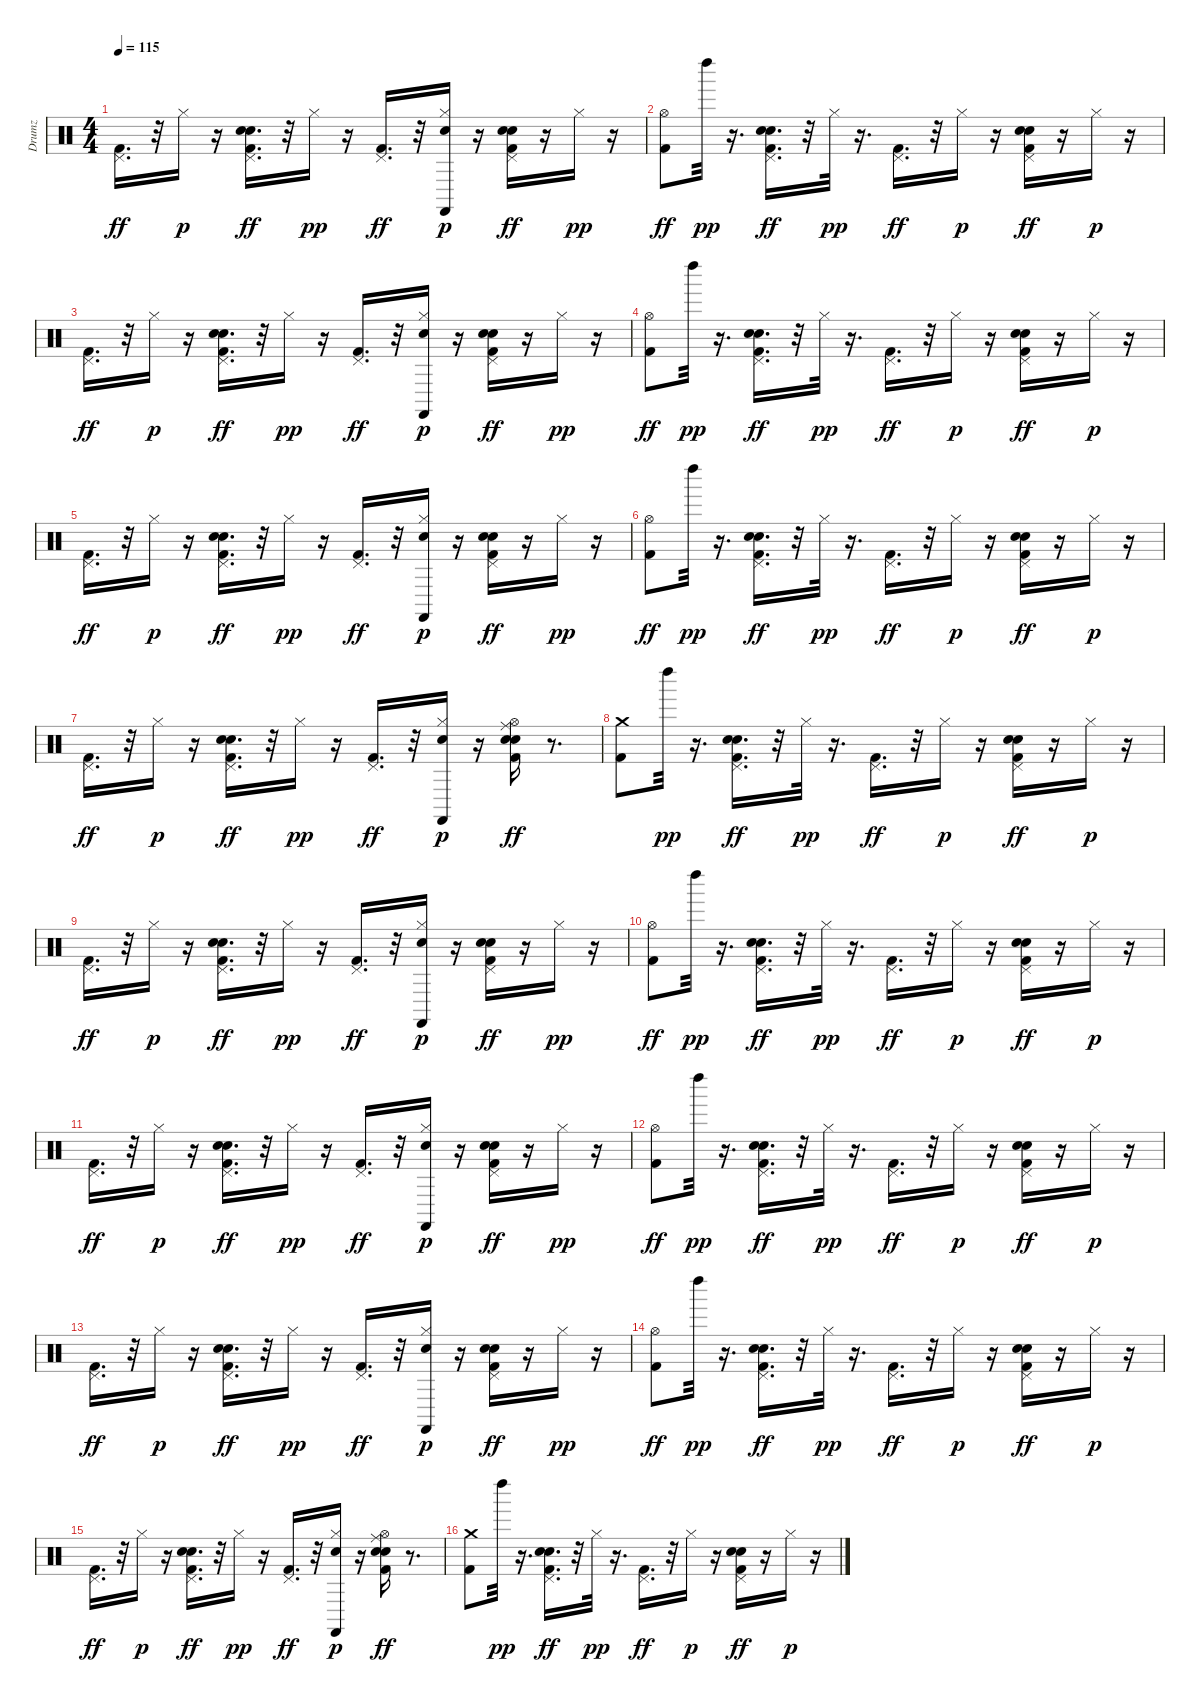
\track ("Drumz" "Drumz") {instrument percussion}
\staff {score}
\articulation defaults
\ts (4 4)
\tempo 115
\clef neutral
\ks c
("Kick (hit) 2" "Pedal Hi-Hat (hit)").16{d dy ff} r.32 "Hi-Hat (closed)".16{dy p} r.16 ("Kick (hit) 2" "Pedal Hi-Hat (hit)" "Hand Clap (hit)" "Electric Snare (hit)").16{d dy ff} r.32 "Hi-Hat (closed)".16{dy pp} r.16 ("Pedal Hi-Hat (hit)" "Kick (hit) 2").16{d dy ff} r.32 ("Hi-Hat (closed)" "Castanets (hit)" "Hand Clap (hit)").16{dy p} r.16 ("Pedal Hi-Hat (hit)" "Kick (hit) 2" "Hand Clap (hit)" "Electric Snare (hit)").16{dy ff} r.16 "Hi-Hat (closed)".16{dy pp} r.16 |
("Hi-Hat (open)" "Kick (hit) 2").8{dy ff} "Left Maraca (hit)".32{dy pp} r.16{d} ("Pedal Hi-Hat (hit)" "Kick (hit) 2" "Hand Clap (hit)" "Electric Snare (hit)").16{d dy ff} r.32 "Hi-Hat (closed)".32{dy pp} r.16{d} ("Pedal Hi-Hat (hit)" "Kick (hit) 2").16{d dy ff} r.32 "Hi-Hat (closed)".16{dy p} r.16 ("Pedal Hi-Hat (hit)" "Kick (hit) 2" "Electric Snare (hit)" "Hand Clap (hit)").16{dy ff} r.16 "Hi-Hat (closed)".16{dy p} r.16 |
("Kick (hit) 2" "Pedal Hi-Hat (hit)").16{d dy ff} r.32 "Hi-Hat (closed)".16{dy p} r.16 ("Kick (hit) 2" "Pedal Hi-Hat (hit)" "Hand Clap (hit)" "Electric Snare (hit)").16{d dy ff} r.32 "Hi-Hat (closed)".16{dy pp} r.16 ("Pedal Hi-Hat (hit)" "Kick (hit) 2").16{d dy ff} r.32 ("Hi-Hat (closed)" "Castanets (hit)" "Hand Clap (hit)").16{dy p} r.16 ("Pedal Hi-Hat (hit)" "Kick (hit) 2" "Hand Clap (hit)" "Electric Snare (hit)").16{dy ff} r.16 "Hi-Hat (closed)".16{dy pp} r.16 |
("Hi-Hat (open)" "Kick (hit) 2").8{dy ff} "Left Maraca (hit)".32{dy pp} r.16{d} ("Pedal Hi-Hat (hit)" "Kick (hit) 2" "Hand Clap (hit)" "Electric Snare (hit)").16{d dy ff} r.32 "Hi-Hat (closed)".32{dy pp} r.16{d} ("Pedal Hi-Hat (hit)" "Kick (hit) 2").16{d dy ff} r.32 "Hi-Hat (closed)".16{dy p} r.16 ("Pedal Hi-Hat (hit)" "Kick (hit) 2" "Electric Snare (hit)" "Hand Clap (hit)").16{dy ff} r.16 "Hi-Hat (closed)".16{dy p} r.16 |
("Kick (hit) 2" "Pedal Hi-Hat (hit)").16{d dy ff} r.32 "Hi-Hat (closed)".16{dy p} r.16 ("Kick (hit) 2" "Pedal Hi-Hat (hit)" "Hand Clap (hit)" "Electric Snare (hit)").16{d dy ff} r.32 "Hi-Hat (closed)".16{dy pp} r.16 ("Pedal Hi-Hat (hit)" "Kick (hit) 2").16{d dy ff} r.32 ("Hi-Hat (closed)" "Castanets (hit)" "Hand Clap (hit)").16{dy p} r.16 ("Pedal Hi-Hat (hit)" "Kick (hit) 2" "Hand Clap (hit)" "Electric Snare (hit)").16{dy ff} r.16 "Hi-Hat (closed)".16{dy pp} r.16 |
("Hi-Hat (open)" "Kick (hit) 2").8{dy ff} "Left Maraca (hit)".32{dy pp} r.16{d} ("Pedal Hi-Hat (hit)" "Kick (hit) 2" "Hand Clap (hit)" "Electric Snare (hit)").16{d dy ff} r.32 "Hi-Hat (closed)".32{dy pp} r.16{d} ("Pedal Hi-Hat (hit)" "Kick (hit) 2").16{d dy ff} r.32 "Hi-Hat (closed)".16{dy p} r.16 ("Pedal Hi-Hat (hit)" "Kick (hit) 2" "Electric Snare (hit)" "Hand Clap (hit)").16{dy ff} r.16 "Hi-Hat (closed)".16{dy p} r.16 |
("Kick (hit) 2" "Pedal Hi-Hat (hit)").16{d dy ff} r.32 "Hi-Hat (closed)".16{dy p} r.16 ("Kick (hit) 2" "Pedal Hi-Hat (hit)" "Hand Clap (hit)" "Electric Snare (hit)").16{d dy ff} r.32 "Hi-Hat (closed)".16{dy pp} r.16 ("Pedal Hi-Hat (hit)" "Kick (hit) 2").16{d dy ff} r.32 ("Hi-Hat (closed)" "Castanets (hit)" "Hand Clap (hit)").16{dy p} r.16 ("Hi-Hat (open)" "Ride (middle)" "Kick (hit) 2" "Hand Clap (hit)" "Electric Snare (hit)").16{dy ff} r.8{d} |
("Crash medium (hit)" "Kick (hit) 2").8 "Left Maraca (hit)".32{dy pp} r.16{d} ("Pedal Hi-Hat (hit)" "Kick (hit) 2" "Hand Clap (hit)" "Electric Snare (hit)").16{d dy ff} r.32 "Hi-Hat (closed)".32{dy pp} r.16{d} ("Pedal Hi-Hat (hit)" "Kick (hit) 2").16{d dy ff} r.32 "Hi-Hat (closed)".16{dy p} r.16 ("Pedal Hi-Hat (hit)" "Kick (hit) 2" "Electric Snare (hit)" "Hand Clap (hit)").16{dy ff} r.16 "Hi-Hat (closed)".16{dy p} r.16 |
("Kick (hit) 2" "Pedal Hi-Hat (hit)").16{d dy ff} r.32 "Hi-Hat (closed)".16{dy p} r.16 ("Kick (hit) 2" "Pedal Hi-Hat (hit)" "Hand Clap (hit)" "Electric Snare (hit)").16{d dy ff} r.32 "Hi-Hat (closed)".16{dy pp} r.16 ("Pedal Hi-Hat (hit)" "Kick (hit) 2").16{d dy ff} r.32 ("Hi-Hat (closed)" "Castanets (hit)" "Hand Clap (hit)").16{dy p} r.16 ("Pedal Hi-Hat (hit)" "Kick (hit) 2" "Hand Clap (hit)" "Electric Snare (hit)").16{dy ff} r.16 "Hi-Hat (closed)".16{dy pp} r.16 |
("Hi-Hat (open)" "Kick (hit) 2").8{dy ff} "Left Maraca (hit)".32{dy pp} r.16{d} ("Pedal Hi-Hat (hit)" "Kick (hit) 2" "Hand Clap (hit)" "Electric Snare (hit)").16{d dy ff} r.32 "Hi-Hat (closed)".32{dy pp} r.16{d} ("Pedal Hi-Hat (hit)" "Kick (hit) 2").16{d dy ff} r.32 "Hi-Hat (closed)".16{dy p} r.16 ("Pedal Hi-Hat (hit)" "Kick (hit) 2" "Electric Snare (hit)" "Hand Clap (hit)").16{dy ff} r.16 "Hi-Hat (closed)".16{dy p} r.16 |
("Kick (hit) 2" "Pedal Hi-Hat (hit)").16{d dy ff} r.32 "Hi-Hat (closed)".16{dy p} r.16 ("Kick (hit) 2" "Pedal Hi-Hat (hit)" "Hand Clap (hit)" "Electric Snare (hit)").16{d dy ff} r.32 "Hi-Hat (closed)".16{dy pp} r.16 ("Pedal Hi-Hat (hit)" "Kick (hit) 2").16{d dy ff} r.32 ("Hi-Hat (closed)" "Castanets (hit)" "Hand Clap (hit)").16{dy p} r.16 ("Pedal Hi-Hat (hit)" "Kick (hit) 2" "Hand Clap (hit)" "Electric Snare (hit)").16{dy ff} r.16 "Hi-Hat (closed)".16{dy pp} r.16 |
("Hi-Hat (open)" "Kick (hit) 2").8{dy ff} "Left Maraca (hit)".32{dy pp} r.16{d} ("Pedal Hi-Hat (hit)" "Kick (hit) 2" "Hand Clap (hit)" "Electric Snare (hit)").16{d dy ff} r.32 "Hi-Hat (closed)".32{dy pp} r.16{d} ("Pedal Hi-Hat (hit)" "Kick (hit) 2").16{d dy ff} r.32 "Hi-Hat (closed)".16{dy p} r.16 ("Pedal Hi-Hat (hit)" "Kick (hit) 2" "Electric Snare (hit)" "Hand Clap (hit)").16{dy ff} r.16 "Hi-Hat (closed)".16{dy p} r.16 |
("Kick (hit) 2" "Pedal Hi-Hat (hit)").16{d dy ff} r.32 "Hi-Hat (closed)".16{dy p} r.16 ("Kick (hit) 2" "Pedal Hi-Hat (hit)" "Hand Clap (hit)" "Electric Snare (hit)").16{d dy ff} r.32 "Hi-Hat (closed)".16{dy pp} r.16 ("Pedal Hi-Hat (hit)" "Kick (hit) 2").16{d dy ff} r.32 ("Hi-Hat (closed)" "Castanets (hit)" "Hand Clap (hit)").16{dy p} r.16 ("Pedal Hi-Hat (hit)" "Kick (hit) 2" "Hand Clap (hit)" "Electric Snare (hit)").16{dy ff} r.16 "Hi-Hat (closed)".16{dy pp} r.16 |
("Hi-Hat (open)" "Kick (hit) 2").8{dy ff} "Left Maraca (hit)".32{dy pp} r.16{d} ("Pedal Hi-Hat (hit)" "Kick (hit) 2" "Hand Clap (hit)" "Electric Snare (hit)").16{d dy ff} r.32 "Hi-Hat (closed)".32{dy pp} r.16{d} ("Pedal Hi-Hat (hit)" "Kick (hit) 2").16{d dy ff} r.32 "Hi-Hat (closed)".16{dy p} r.16 ("Pedal Hi-Hat (hit)" "Kick (hit) 2" "Electric Snare (hit)" "Hand Clap (hit)").16{dy ff} r.16 "Hi-Hat (closed)".16{dy p} r.16 |
("Kick (hit) 2" "Pedal Hi-Hat (hit)").16{d dy ff} r.32 "Hi-Hat (closed)".16{dy p} r.16 ("Kick (hit) 2" "Pedal Hi-Hat (hit)" "Hand Clap (hit)" "Electric Snare (hit)").16{d dy ff} r.32 "Hi-Hat (closed)".16{dy pp} r.16 ("Pedal Hi-Hat (hit)" "Kick (hit) 2").16{d dy ff} r.32 ("Hi-Hat (closed)" "Castanets (hit)" "Hand Clap (hit)").16{dy p} r.16 ("Hi-Hat (open)" "Ride (middle)" "Kick (hit) 2" "Hand Clap (hit)" "Electric Snare (hit)").16{dy ff} r.8{d} |
("Crash medium (hit)" "Kick (hit) 2").8 "Left Maraca (hit)".32{dy pp} r.16{d} ("Pedal Hi-Hat (hit)" "Kick (hit) 2" "Hand Clap (hit)" "Electric Snare (hit)").16{d dy ff} r.32 "Hi-Hat (closed)".32{dy pp} r.16{d} ("Pedal Hi-Hat (hit)" "Kick (hit) 2").16{d dy ff} r.32 "Hi-Hat (closed)".16{dy p} r.16 ("Pedal Hi-Hat (hit)" "Kick (hit) 2" "Electric Snare (hit)" "Hand Clap (hit)").16{dy ff} r.16 "Hi-Hat (closed)".16{dy p} r.16
